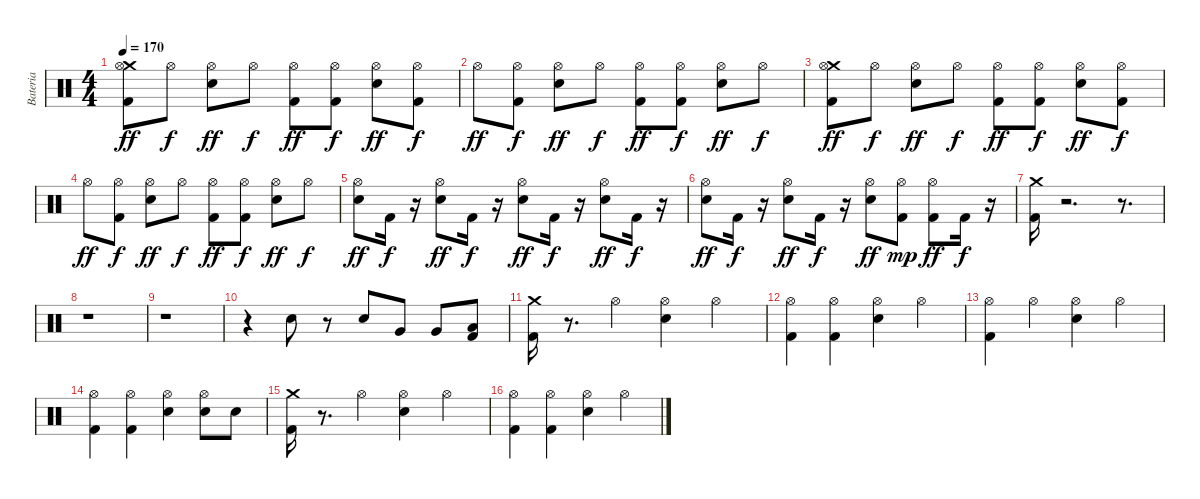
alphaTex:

\track ("Bateria" "Bateria") {instrument percussion}
\staff {score}
\articulation defaults
\ts (4 4)
\tempo 170
\clef neutral
\ks c
("Crash medium (hit)" "Hi-Hat (open)" "Kick (hit) 2").8{dy ff} "Hi-Hat (open)".8{dy f} ("Hi-Hat (open)" "Electric Snare (hit)").8{dy ff} "Hi-Hat (open)".8{dy f} ("Hi-Hat (open)" "Kick (hit) 2").8{dy ff} ("Hi-Hat (open)" "Kick (hit) 2").8{dy f} ("Hi-Hat (open)" "Electric Snare (hit)").8{dy ff} ("Hi-Hat (open)" "Kick (hit) 2").8{dy f} |
"Hi-Hat (open)".8{dy ff} ("Hi-Hat (open)" "Kick (hit) 2").8{dy f} ("Hi-Hat (open)" "Electric Snare (hit)").8{dy ff} "Hi-Hat (open)".8{dy f} ("Hi-Hat (open)" "Kick (hit) 2").8{dy ff} ("Hi-Hat (open)" "Kick (hit) 2").8{dy f} ("Hi-Hat (open)" "Electric Snare (hit)").8{dy ff} "Hi-Hat (open)".8{dy f} |
("Crash medium (hit)" "Hi-Hat (open)" "Kick (hit) 2").8{dy ff} "Hi-Hat (open)".8{dy f} ("Hi-Hat (open)" "Electric Snare (hit)").8{dy ff} "Hi-Hat (open)".8{dy f} ("Hi-Hat (open)" "Kick (hit) 2").8{dy ff} ("Hi-Hat (open)" "Kick (hit) 2").8{dy f} ("Hi-Hat (open)" "Electric Snare (hit)").8{dy ff} ("Hi-Hat (open)" "Kick (hit) 2").8{dy f} |
"Hi-Hat (open)".8{dy ff} ("Hi-Hat (open)" "Kick (hit) 2").8{dy f} ("Hi-Hat (open)" "Electric Snare (hit)").8{dy ff} "Hi-Hat (open)".8{dy f} ("Hi-Hat (open)" "Kick (hit) 2").8{dy ff} ("Hi-Hat (open)" "Kick (hit) 2").8{dy f} ("Hi-Hat (open)" "Electric Snare (hit)").8{dy ff} "Hi-Hat (open)".8{dy f} |
("Hi-Hat (open)" "Electric Snare (hit)").8{dy ff} "Kick (hit) 2".16{dy f} r.16 ("Hi-Hat (open)" "Electric Snare (hit)").8{dy ff} "Kick (hit) 2".16{dy f} r.16 ("Hi-Hat (open)" "Electric Snare (hit)").8{dy ff} "Kick (hit) 2".16{dy f} r.16 ("Hi-Hat (open)" "Electric Snare (hit)").8{dy ff} "Kick (hit) 2".16{dy f} r.16 |
("Hi-Hat (open)" "Electric Snare (hit)").8{dy ff} "Kick (hit) 2".16{dy f} r.16 ("Hi-Hat (open)" "Electric Snare (hit)").8{dy ff} "Kick (hit) 2".16{dy f} r.16 ("Hi-Hat (open)" "Electric Snare (hit)").8{dy ff} ("Hi-Hat (open)" "Kick (hit) 2").8{dy mp} ("Hi-Hat (open)" "Kick (hit) 2").8{dy ff} "Kick (hit) 2".16{dy f} r.16 |
("Crash medium (hit)" "Kick (hit) 2").16 r.2{d} r.8{d} |
r.1 |
r.1 |
r.4 "Electric Snare (hit)".8 r.8 "Electric Snare (hit)".8 "Very Low Tom (hit)".8 "Very Low Tom (hit)".8 ("Low Floor Tom (hit)" "Kick (hit) 2").8 |
("Crash medium (hit)" "Kick (hit) 2").16 r.8{d} "Hi-Hat (open)".4 ("Hi-Hat (open)" "Electric Snare (hit)").4 "Hi-Hat (open)".4 |
("Hi-Hat (open)" "Kick (hit) 2").4 ("Hi-Hat (open)" "Kick (hit) 2").4 ("Hi-Hat (open)" "Electric Snare (hit)").4 "Hi-Hat (open)".4 |
("Hi-Hat (open)" "Kick (hit) 2").4 "Hi-Hat (open)".4 ("Hi-Hat (open)" "Electric Snare (hit)").4 "Hi-Hat (open)".4 |
("Hi-Hat (open)" "Kick (hit) 2").4 ("Hi-Hat (open)" "Kick (hit) 2").4 ("Hi-Hat (open)" "Electric Snare (hit)").4 ("Hi-Hat (open)" "Electric Snare (hit)").8 "Electric Snare (hit)".8 |
("Crash medium (hit)" "Kick (hit) 2").16 r.8{d} "Hi-Hat (open)".4 ("Hi-Hat (open)" "Electric Snare (hit)").4 "Hi-Hat (open)".4 |
("Hi-Hat (open)" "Kick (hit) 2").4 ("Hi-Hat (open)" "Kick (hit) 2").4 ("Hi-Hat (open)" "Electric Snare (hit)").4 "Hi-Hat (open)".4
